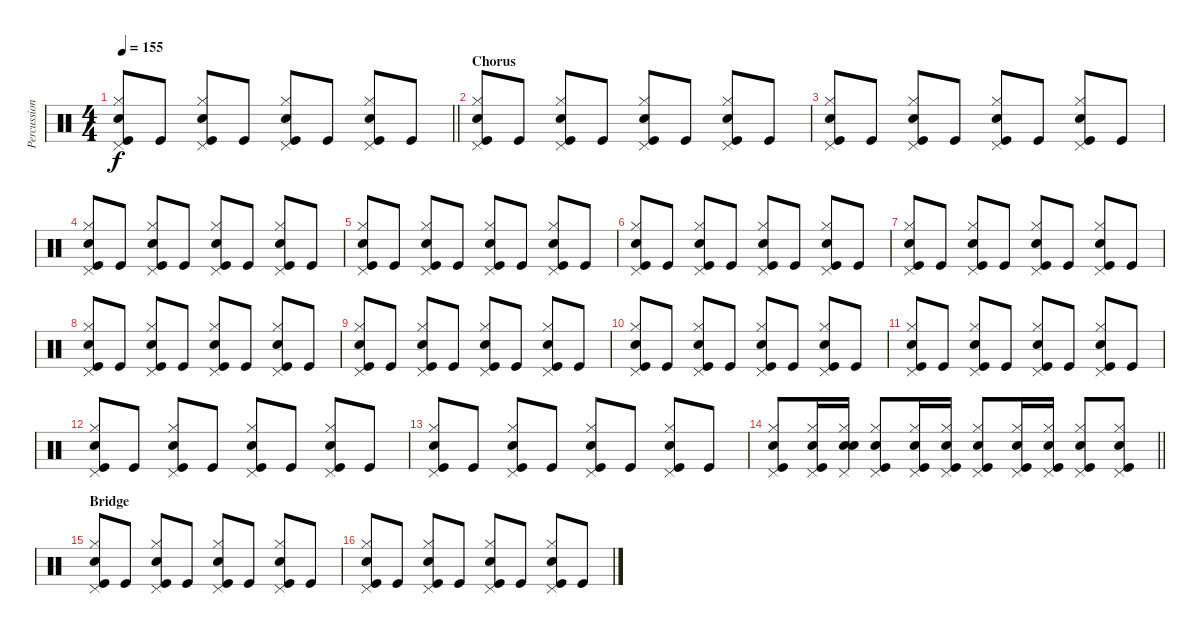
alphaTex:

\track ("Percussions" "Percussion") {instrument percussion}
\staff {score}
\articulation defaults
\ts (4 4)
\tempo 155
\clef neutral
\barLineRight lightlight
\ks c
("Snare (hit) 2" "Hi-Hat (closed)" "Pedal Hi-Hat (hit)" "Kick (hit)").8{dy f} "Kick (hit)".8 ("Snare (hit) 2" "Hi-Hat (closed)" "Pedal Hi-Hat (hit)" "Kick (hit)").8 "Kick (hit)".8 ("Snare (hit) 2" "Hi-Hat (closed)" "Pedal Hi-Hat (hit)" "Kick (hit)").8 "Kick (hit)".8 ("Snare (hit) 2" "Hi-Hat (closed)" "Pedal Hi-Hat (hit)" "Kick (hit)").8 "Kick (hit)".8 |
\section ("" "Chorus")
("Snare (hit) 2" "Hi-Hat (closed)" "Pedal Hi-Hat (hit)" "Kick (hit)").8 "Kick (hit)".8 ("Snare (hit) 2" "Hi-Hat (closed)" "Pedal Hi-Hat (hit)" "Kick (hit)").8 "Kick (hit)".8 ("Snare (hit) 2" "Hi-Hat (closed)" "Pedal Hi-Hat (hit)" "Kick (hit)").8 "Kick (hit)".8 ("Snare (hit) 2" "Hi-Hat (closed)" "Pedal Hi-Hat (hit)" "Kick (hit)").8 "Kick (hit)".8 |
("Snare (hit) 2" "Hi-Hat (closed)" "Pedal Hi-Hat (hit)" "Kick (hit)").8 "Kick (hit)".8 ("Snare (hit) 2" "Hi-Hat (closed)" "Pedal Hi-Hat (hit)" "Kick (hit)").8 "Kick (hit)".8 ("Snare (hit) 2" "Hi-Hat (closed)" "Pedal Hi-Hat (hit)" "Kick (hit)").8 "Kick (hit)".8 ("Snare (hit) 2" "Hi-Hat (closed)" "Pedal Hi-Hat (hit)" "Kick (hit)").8 "Kick (hit)".8 |
("Snare (hit) 2" "Hi-Hat (closed)" "Pedal Hi-Hat (hit)" "Kick (hit)").8 "Kick (hit)".8 ("Snare (hit) 2" "Hi-Hat (closed)" "Pedal Hi-Hat (hit)" "Kick (hit)").8 "Kick (hit)".8 ("Snare (hit) 2" "Hi-Hat (closed)" "Pedal Hi-Hat (hit)" "Kick (hit)").8 "Kick (hit)".8 ("Snare (hit) 2" "Hi-Hat (closed)" "Pedal Hi-Hat (hit)" "Kick (hit)").8 "Kick (hit)".8 |
("Snare (hit) 2" "Hi-Hat (closed)" "Pedal Hi-Hat (hit)" "Kick (hit)").8 "Kick (hit)".8 ("Snare (hit) 2" "Hi-Hat (closed)" "Pedal Hi-Hat (hit)" "Kick (hit)").8 "Kick (hit)".8 ("Snare (hit) 2" "Hi-Hat (closed)" "Pedal Hi-Hat (hit)" "Kick (hit)").8 "Kick (hit)".8 ("Snare (hit) 2" "Hi-Hat (closed)" "Pedal Hi-Hat (hit)" "Kick (hit)").8 "Kick (hit)".8 |
("Snare (hit) 2" "Hi-Hat (closed)" "Pedal Hi-Hat (hit)" "Kick (hit)").8 "Kick (hit)".8 ("Snare (hit) 2" "Hi-Hat (closed)" "Pedal Hi-Hat (hit)" "Kick (hit)").8 "Kick (hit)".8 ("Snare (hit) 2" "Hi-Hat (closed)" "Pedal Hi-Hat (hit)" "Kick (hit)").8 "Kick (hit)".8 ("Snare (hit) 2" "Hi-Hat (closed)" "Pedal Hi-Hat (hit)" "Kick (hit)").8 "Kick (hit)".8 |
("Snare (hit) 2" "Hi-Hat (closed)" "Pedal Hi-Hat (hit)" "Kick (hit)").8 "Kick (hit)".8 ("Snare (hit) 2" "Hi-Hat (closed)" "Pedal Hi-Hat (hit)" "Kick (hit)").8 "Kick (hit)".8 ("Snare (hit) 2" "Hi-Hat (closed)" "Pedal Hi-Hat (hit)" "Kick (hit)").8 "Kick (hit)".8 ("Snare (hit) 2" "Hi-Hat (closed)" "Pedal Hi-Hat (hit)" "Kick (hit)").8 "Kick (hit)".8 |
("Snare (hit) 2" "Hi-Hat (closed)" "Pedal Hi-Hat (hit)" "Kick (hit)").8 "Kick (hit)".8 ("Snare (hit) 2" "Hi-Hat (closed)" "Pedal Hi-Hat (hit)" "Kick (hit)").8 "Kick (hit)".8 ("Snare (hit) 2" "Hi-Hat (closed)" "Pedal Hi-Hat (hit)" "Kick (hit)").8 "Kick (hit)".8 ("Snare (hit) 2" "Hi-Hat (closed)" "Pedal Hi-Hat (hit)" "Kick (hit)").8 "Kick (hit)".8 |
("Snare (hit) 2" "Hi-Hat (closed)" "Pedal Hi-Hat (hit)" "Kick (hit)").8 "Kick (hit)".8 ("Snare (hit) 2" "Hi-Hat (closed)" "Pedal Hi-Hat (hit)" "Kick (hit)").8 "Kick (hit)".8 ("Snare (hit) 2" "Hi-Hat (closed)" "Pedal Hi-Hat (hit)" "Kick (hit)").8 "Kick (hit)".8 ("Snare (hit) 2" "Hi-Hat (closed)" "Pedal Hi-Hat (hit)" "Kick (hit)").8 "Kick (hit)".8 |
("Snare (hit) 2" "Hi-Hat (closed)" "Pedal Hi-Hat (hit)" "Kick (hit)").8 "Kick (hit)".8 ("Snare (hit) 2" "Hi-Hat (closed)" "Pedal Hi-Hat (hit)" "Kick (hit)").8 "Kick (hit)".8 ("Snare (hit) 2" "Hi-Hat (closed)" "Pedal Hi-Hat (hit)" "Kick (hit)").8 "Kick (hit)".8 ("Snare (hit) 2" "Hi-Hat (closed)" "Pedal Hi-Hat (hit)" "Kick (hit)").8 "Kick (hit)".8 |
("Snare (hit) 2" "Hi-Hat (closed)" "Pedal Hi-Hat (hit)" "Kick (hit)").8 "Kick (hit)".8 ("Snare (hit) 2" "Hi-Hat (closed)" "Pedal Hi-Hat (hit)" "Kick (hit)").8 "Kick (hit)".8 ("Snare (hit) 2" "Hi-Hat (closed)" "Pedal Hi-Hat (hit)" "Kick (hit)").8 "Kick (hit)".8 ("Snare (hit) 2" "Hi-Hat (closed)" "Pedal Hi-Hat (hit)" "Kick (hit)").8 "Kick (hit)".8 |
("Snare (hit) 2" "Hi-Hat (closed)" "Pedal Hi-Hat (hit)" "Kick (hit)").8 "Kick (hit)".8 ("Snare (hit) 2" "Hi-Hat (closed)" "Pedal Hi-Hat (hit)" "Kick (hit)").8 "Kick (hit)".8 ("Snare (hit) 2" "Hi-Hat (closed)" "Pedal Hi-Hat (hit)" "Kick (hit)").8 "Kick (hit)".8 ("Snare (hit) 2" "Hi-Hat (closed)" "Pedal Hi-Hat (hit)" "Kick (hit)").8 "Kick (hit)".8 |
("Snare (hit) 2" "Hi-Hat (closed)" "Pedal Hi-Hat (hit)" "Kick (hit)").8 "Kick (hit)".8 ("Snare (hit) 2" "Hi-Hat (closed)" "Pedal Hi-Hat (hit)" "Kick (hit)").8 "Kick (hit)".8 ("Snare (hit) 2" "Hi-Hat (closed)" "Pedal Hi-Hat (hit)" "Kick (hit)").8 "Kick (hit)".8 ("Snare (hit) 2" "Hi-Hat (closed)" "Pedal Hi-Hat (hit)" "Kick (hit)").8 "Kick (hit)".8 |
\barLineRight lightlight
("Snare (hit) 2" "Hi-Hat (closed)" "Pedal Hi-Hat (hit)" "Kick (hit)").8 ("Snare (hit) 2" "Hi-Hat (closed)" "Pedal Hi-Hat (hit)" "Kick (hit)").16 ("Snare (hit) 2" "Hi-Hat (closed)" "Pedal Hi-Hat (hit)" "Snare (hit)").16 ("Snare (hit) 2" "Hi-Hat (closed)" "Pedal Hi-Hat (hit)" "Kick (hit)").8 ("Snare (hit) 2" "Hi-Hat (closed)" "Pedal Hi-Hat (hit)" "Kick (hit)").16 ("Snare (hit) 2" "Hi-Hat (closed)" "Pedal Hi-Hat (hit)" "Kick (hit)").16 ("Snare (hit) 2" "Hi-Hat (closed)" "Pedal Hi-Hat (hit)" "Kick (hit)").8 ("Snare (hit) 2" "Hi-Hat (closed)" "Pedal Hi-Hat (hit)" "Kick (hit)").16 ("Snare (hit) 2" "Hi-Hat (closed)" "Pedal Hi-Hat (hit)" "Kick (hit)").16 ("Snare (hit) 2" "Hi-Hat (closed)" "Pedal Hi-Hat (hit)" "Kick (hit)").8 ("Snare (hit) 2" "Hi-Hat (closed)" "Pedal Hi-Hat (hit)" "Kick (hit)").8 |
\section ("" "Bridge")
("Snare (hit) 2" "Hi-Hat (closed)" "Pedal Hi-Hat (hit)" "Kick (hit)").8 "Kick (hit)".8 ("Snare (hit) 2" "Hi-Hat (closed)" "Pedal Hi-Hat (hit)" "Kick (hit)").8 "Kick (hit)".8 ("Snare (hit) 2" "Hi-Hat (closed)" "Pedal Hi-Hat (hit)" "Kick (hit)").8 "Kick (hit)".8 ("Snare (hit) 2" "Hi-Hat (closed)" "Pedal Hi-Hat (hit)" "Kick (hit)").8 "Kick (hit)".8 |
("Snare (hit) 2" "Hi-Hat (closed)" "Pedal Hi-Hat (hit)" "Kick (hit)").8 "Kick (hit)".8 ("Snare (hit) 2" "Hi-Hat (closed)" "Pedal Hi-Hat (hit)" "Kick (hit)").8 "Kick (hit)".8 ("Snare (hit) 2" "Hi-Hat (closed)" "Pedal Hi-Hat (hit)" "Kick (hit)").8 "Kick (hit)".8 ("Snare (hit) 2" "Hi-Hat (closed)" "Pedal Hi-Hat (hit)" "Kick (hit)").8 "Kick (hit)".8
